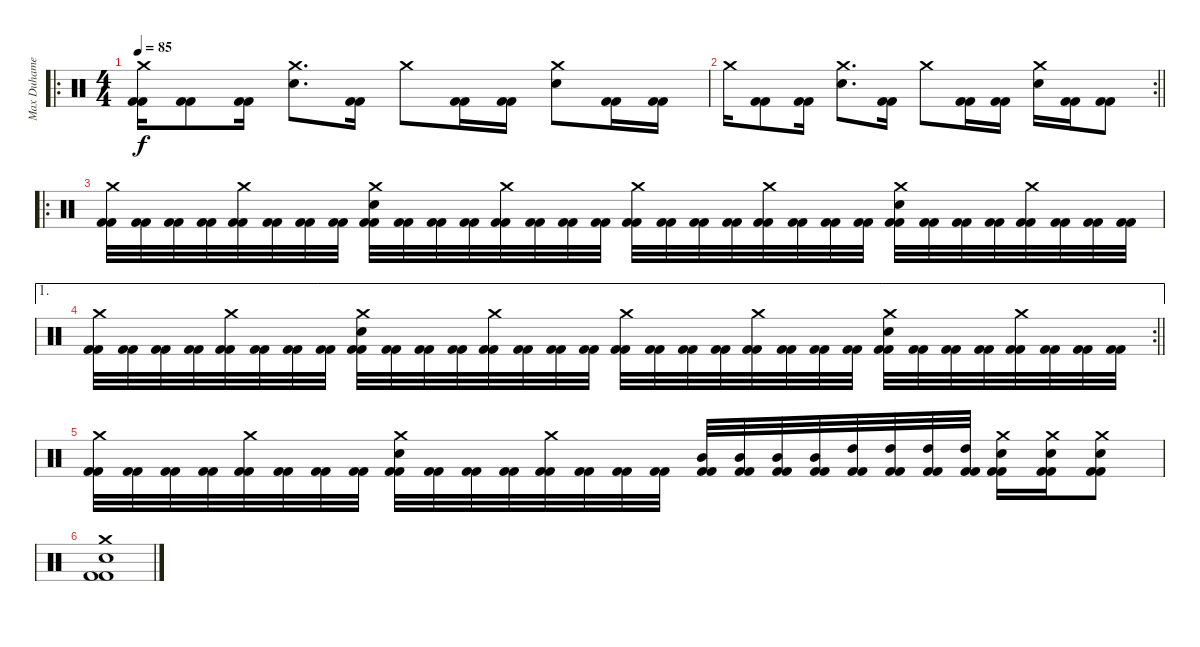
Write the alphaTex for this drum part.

\track ("Max Duhamel" "Max Duhame") {instrument percussion}
\staff {score}
\articulation defaults
\ro
\ts (4 4)
\tempo 85
\clef neutral
\ks c
("Crash medium (hit)" "Kick (hit) 2" "Kick (hit) 2").16{dy f} ("Kick (hit) 2" "Kick (hit) 2").8 ("Kick (hit) 2" "Kick (hit) 2").16 ("Crash medium (hit)" "Snare (hit) 2").8{d} ("Kick (hit) 2" "Kick (hit) 2").16 "Crash medium (hit)".8 ("Kick (hit) 2" "Kick (hit) 2").16 ("Kick (hit) 2" "Kick (hit) 2").16 ("Crash medium (hit)" "Snare (hit) 2").8 ("Kick (hit) 2" "Kick (hit) 2").16 ("Kick (hit) 2" "Kick (hit) 2").16 |
\rc 2
\barLineRight lightlight "Crash medium (hit)".16
("Kick (hit) 2" "Kick (hit) 2").8 ("Kick (hit) 2" "Kick (hit) 2").16 ("Crash medium (hit)" "Snare (hit) 2").8{d} ("Kick (hit) 2" "Kick (hit) 2").16 "Crash medium (hit)".8 ("Kick (hit) 2" "Kick (hit) 2").16 ("Kick (hit) 2" "Kick (hit) 2").16 ("Crash medium (hit)" "Snare (hit) 2").16 ("Kick (hit) 2" "Kick (hit) 2").16 ("Kick (hit) 2" "Kick (hit) 2").8 |
\ro
("Crash medium (hit)" "Kick (hit) 2" "Kick (hit) 2").32 ("Kick (hit) 2" "Kick (hit) 2").32 ("Kick (hit) 2" "Kick (hit) 2").32 ("Kick (hit) 2" "Kick (hit) 2").32 ("Crash medium (hit)" "Kick (hit) 2" "Kick (hit) 2").32 ("Kick (hit) 2" "Kick (hit) 2").32 ("Kick (hit) 2" "Kick (hit) 2").32 ("Kick (hit) 2" "Kick (hit) 2").32 ("Snare (hit) 2" "Crash medium (hit)" "Kick (hit) 2" "Kick (hit) 2").32 ("Kick (hit) 2" "Kick (hit) 2").32 ("Kick (hit) 2" "Kick (hit) 2").32 ("Kick (hit) 2" "Kick (hit) 2").32 ("Crash medium (hit)" "Kick (hit) 2" "Kick (hit) 2").32 ("Kick (hit) 2" "Kick (hit) 2").32 ("Kick (hit) 2" "Kick (hit) 2").32 ("Kick (hit) 2" "Kick (hit) 2").32 ("Crash medium (hit)" "Kick (hit) 2" "Kick (hit) 2").32 ("Kick (hit) 2" "Kick (hit) 2").32 ("Kick (hit) 2" "Kick (hit) 2").32 ("Kick (hit) 2" "Kick (hit) 2").32 ("Crash medium (hit)" "Kick (hit) 2" "Kick (hit) 2").32 ("Kick (hit) 2" "Kick (hit) 2").32 ("Kick (hit) 2" "Kick (hit) 2").32 ("Kick (hit) 2" "Kick (hit) 2").32 ("Snare (hit) 2" "Crash medium (hit)" "Kick (hit) 2" "Kick (hit) 2").32 ("Kick (hit) 2" "Kick (hit) 2").32 ("Kick (hit) 2" "Kick (hit) 2").32 ("Kick (hit) 2" "Kick (hit) 2").32 ("Crash medium (hit)" "Kick (hit) 2" "Kick (hit) 2").32 ("Kick (hit) 2" "Kick (hit) 2").32 ("Kick (hit) 2" "Kick (hit) 2").32 ("Kick (hit) 2" "Kick (hit) 2").32 |
\ae 1
\rc 2
\barLineRight lightlight
("Crash medium (hit)" "Kick (hit) 2" "Kick (hit) 2").32 ("Kick (hit) 2" "Kick (hit) 2").32 ("Kick (hit) 2" "Kick (hit) 2").32 ("Kick (hit) 2" "Kick (hit) 2").32 ("Crash medium (hit)" "Kick (hit) 2" "Kick (hit) 2").32 ("Kick (hit) 2" "Kick (hit) 2").32 ("Kick (hit) 2" "Kick (hit) 2").32 ("Kick (hit) 2" "Kick (hit) 2").32 ("Snare (hit) 2" "Crash medium (hit)" "Kick (hit) 2" "Kick (hit) 2").32 ("Kick (hit) 2" "Kick (hit) 2").32 ("Kick (hit) 2" "Kick (hit) 2").32 ("Kick (hit) 2" "Kick (hit) 2").32 ("Crash medium (hit)" "Kick (hit) 2" "Kick (hit) 2").32 ("Kick (hit) 2" "Kick (hit) 2").32 ("Kick (hit) 2" "Kick (hit) 2").32 ("Kick (hit) 2" "Kick (hit) 2").32 ("Crash medium (hit)" "Kick (hit) 2" "Kick (hit) 2").32 ("Kick (hit) 2" "Kick (hit) 2").32 ("Kick (hit) 2" "Kick (hit) 2").32 ("Kick (hit) 2" "Kick (hit) 2").32 ("Crash medium (hit)" "Kick (hit) 2" "Kick (hit) 2").32 ("Kick (hit) 2" "Kick (hit) 2").32 ("Kick (hit) 2" "Kick (hit) 2").32 ("Kick (hit) 2" "Kick (hit) 2").32 ("Snare (hit) 2" "Crash medium (hit)" "Kick (hit) 2" "Kick (hit) 2").32 ("Kick (hit) 2" "Kick (hit) 2").32 ("Kick (hit) 2" "Kick (hit) 2").32 ("Kick (hit) 2" "Kick (hit) 2").32 ("Crash medium (hit)" "Kick (hit) 2" "Kick (hit) 2").32 ("Kick (hit) 2" "Kick (hit) 2").32 ("Kick (hit) 2" "Kick (hit) 2").32 ("Kick (hit) 2" "Kick (hit) 2").32 |
("Crash medium (hit)" "Kick (hit) 2" "Kick (hit) 2").32 ("Kick (hit) 2" "Kick (hit) 2").32 ("Kick (hit) 2" "Kick (hit) 2").32 ("Kick (hit) 2" "Kick (hit) 2").32 ("Crash medium (hit)" "Kick (hit) 2" "Kick (hit) 2").32 ("Kick (hit) 2" "Kick (hit) 2").32 ("Kick (hit) 2" "Kick (hit) 2").32 ("Kick (hit) 2" "Kick (hit) 2").32 ("Snare (hit) 2" "Crash medium (hit)" "Kick (hit) 2" "Kick (hit) 2").32 ("Kick (hit) 2" "Kick (hit) 2").32 ("Kick (hit) 2" "Kick (hit) 2").32 ("Kick (hit) 2" "Kick (hit) 2").32 ("Crash medium (hit)" "Kick (hit) 2" "Kick (hit) 2").32 ("Kick (hit) 2" "Kick (hit) 2").32 ("Kick (hit) 2" "Kick (hit) 2").32 ("Kick (hit) 2" "Kick (hit) 2").32 ("Mid Tom (hit)" "Kick (hit) 2" "Kick (hit) 2").32 ("Mid Tom (hit)" "Kick (hit) 2" "Kick (hit) 2").32 ("Mid Tom (hit)" "Kick (hit) 2" "Kick (hit) 2").32 ("Mid Tom (hit)" "Kick (hit) 2" "Kick (hit) 2").32 ("High Tom (hit)" "Kick (hit) 2" "Kick (hit) 2").32 ("High Tom (hit)" "Kick (hit) 2" "Kick (hit) 2").32 ("High Tom (hit)" "Kick (hit) 2" "Kick (hit) 2").32 ("High Tom (hit)" "Kick (hit) 2" "Kick (hit) 2").32 ("Crash medium (hit)" "Snare (hit) 2" "Kick (hit) 2" "Kick (hit) 2").16 ("Crash medium (hit)" "Snare (hit) 2" "Kick (hit) 2" "Kick (hit) 2").16 ("Crash medium (hit)" "Snare (hit) 2" "Kick (hit) 2" "Kick (hit) 2").8 |
("Crash medium (hit)" "Snare (hit) 2" "Kick (hit) 2" "Kick (hit) 2").1
